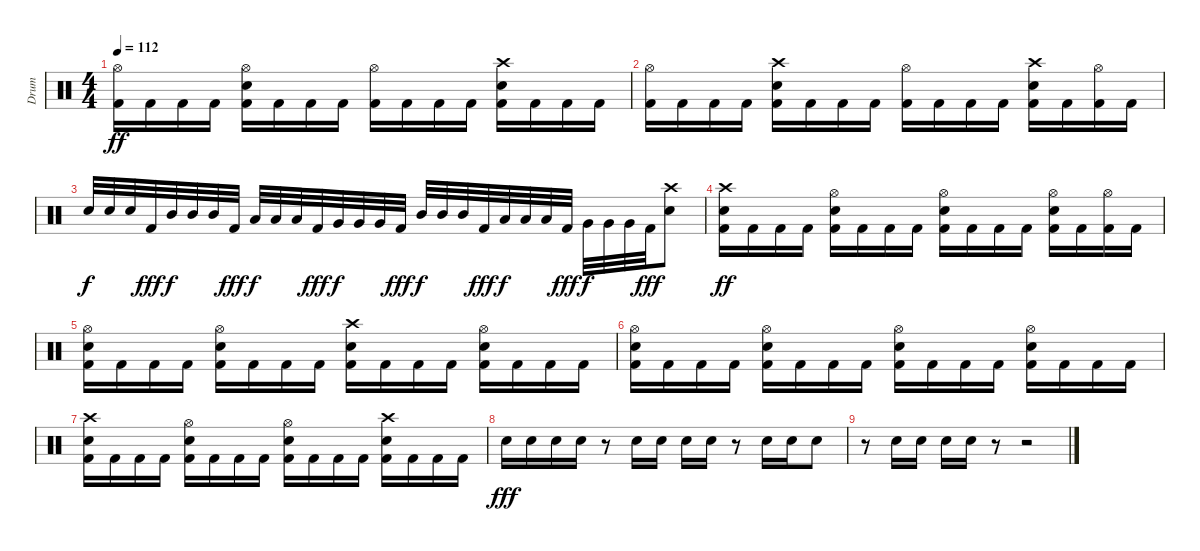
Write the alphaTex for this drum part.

\track ("Drum" "Drum") {instrument percussion}
\staff {score}
\articulation defaults
\ts (4 4)
\tempo 112
\clef neutral
\ks c
("Hi-Hat (open)" "Kick (hit) 2").16{dy ff} "Kick (hit) 2".16 "Kick (hit) 2".16 "Kick (hit) 2".16 ("Hi-Hat (open)" "Electric Snare (hit)" "Kick (hit) 2").16 "Kick (hit) 2".16 "Kick (hit) 2".16 "Kick (hit) 2".16 ("Hi-Hat (open)" "Kick (hit) 2").16 "Kick (hit) 2".16 "Kick (hit) 2".16 "Kick (hit) 2".16 ("Crash high (hit)" "Electric Snare (hit)" "Kick (hit) 2").16 "Kick (hit) 2".16 "Kick (hit) 2".16 "Kick (hit) 2".16 |
("Hi-Hat (open)" "Kick (hit) 2").16 "Kick (hit) 2".16 "Kick (hit) 2".16 "Kick (hit) 2".16 ("Crash high (hit)" "Electric Snare (hit)" "Kick (hit) 2").16 "Kick (hit) 2".16 "Kick (hit) 2".16 "Kick (hit) 2".16 ("Hi-Hat (open)" "Kick (hit) 2").16 "Kick (hit) 2".16 "Kick (hit) 2".16 "Kick (hit) 2".16 ("Crash high (hit)" "Electric Snare (hit)" "Kick (hit) 2").16 "Kick (hit) 2".16 ("Hi-Hat (open)" "Kick (hit) 2").16 "Kick (hit) 2".16 |
"Electric Snare (hit)".32{dy f} "Electric Snare (hit)".32 "Electric Snare (hit)".32 "Kick (hit) 2".32{dy fff} "Mid Tom (hit)".32{dy f} "Mid Tom (hit)".32 "Mid Tom (hit)".32 "Kick (hit) 2".32{dy fff} "Low Tom (hit)".32{dy f} "Low Tom (hit)".32 "Low Tom (hit)".32 "Kick (hit) 2".32{dy fff} "Very Low Tom (hit)".32{dy f} "Very Low Tom (hit)".32 "Very Low Tom (hit)".32 "Kick (hit) 2".32{dy fff} "Mid Tom (hit)".32{dy f} "Mid Tom (hit)".32 "Mid Tom (hit)".32 "Kick (hit) 2".32{dy fff} "Low Tom (hit)".32{dy f} "Low Tom (hit)".32 "Low Tom (hit)".32 "Kick (hit) 2".32{dy fff} "Very Low Tom (hit)".32{dy f} "Very Low Tom (hit)".32 "Very Low Tom (hit)".32 "Kick (hit) 2".32{dy fff} ("Crash high (hit)" "Electric Snare (hit)").8 |
("Crash high (hit)" "Electric Snare (hit)" "Kick (hit) 2").16{dy ff} "Kick (hit) 2".16 "Kick (hit) 2".16 "Kick (hit) 2".16 ("Hi-Hat (open)" "Electric Snare (hit)" "Kick (hit) 2").16 "Kick (hit) 2".16 "Kick (hit) 2".16 "Kick (hit) 2".16 ("Hi-Hat (open)" "Electric Snare (hit)" "Kick (hit) 2").16 "Kick (hit) 2".16 "Kick (hit) 2".16 "Kick (hit) 2".16 ("Hi-Hat (open)" "Electric Snare (hit)" "Kick (hit) 2").16 "Kick (hit) 2".16 ("Hi-Hat (open)" "Kick (hit) 2").16 "Kick (hit) 2".16 |
("Hi-Hat (open)" "Electric Snare (hit)" "Kick (hit) 2").16 "Kick (hit) 2".16 "Kick (hit) 2".16 "Kick (hit) 2".16 ("Hi-Hat (open)" "Electric Snare (hit)" "Kick (hit) 2").16 "Kick (hit) 2".16 "Kick (hit) 2".16 "Kick (hit) 2".16 ("Crash high (hit)" "Electric Snare (hit)" "Kick (hit) 2").16 "Kick (hit) 2".16 "Kick (hit) 2".16 "Kick (hit) 2".16 ("Hi-Hat (open)" "Electric Snare (hit)" "Kick (hit) 2").16 "Kick (hit) 2".16 "Kick (hit) 2".16 "Kick (hit) 2".16 |
("Hi-Hat (open)" "Electric Snare (hit)" "Kick (hit) 2").16 "Kick (hit) 2".16 "Kick (hit) 2".16 "Kick (hit) 2".16 ("Hi-Hat (open)" "Electric Snare (hit)" "Kick (hit) 2").16 "Kick (hit) 2".16 "Kick (hit) 2".16 "Kick (hit) 2".16 ("Hi-Hat (open)" "Electric Snare (hit)" "Kick (hit) 2").16 "Kick (hit) 2".16 "Kick (hit) 2".16 "Kick (hit) 2".16 ("Hi-Hat (open)" "Electric Snare (hit)" "Kick (hit) 2").16 "Kick (hit) 2".16 "Kick (hit) 2".16 "Kick (hit) 2".16 |
("Crash high (hit)" "Electric Snare (hit)" "Kick (hit) 2").16 "Kick (hit) 2".16 "Kick (hit) 2".16 "Kick (hit) 2".16 ("Hi-Hat (open)" "Electric Snare (hit)" "Kick (hit) 2").16 "Kick (hit) 2".16 "Kick (hit) 2".16 "Kick (hit) 2".16 ("Hi-Hat (open)" "Electric Snare (hit)" "Kick (hit) 2").16 "Kick (hit) 2".16 "Kick (hit) 2".16 "Kick (hit) 2".16 ("Crash high (hit)" "Electric Snare (hit)" "Kick (hit) 2").16 "Kick (hit) 2".16 "Kick (hit) 2".16 "Kick (hit) 2".16 |
"Electric Snare (hit)".16{dy fff} "Electric Snare (hit)".16 "Electric Snare (hit)".16 "Electric Snare (hit)".16 r.8 "Electric Snare (hit)".16 "Electric Snare (hit)".16 "Electric Snare (hit)".16 "Electric Snare (hit)".16 r.8 "Electric Snare (hit)".16 "Electric Snare (hit)".16 "Electric Snare (hit)".8 |
r.8 "Electric Snare (hit)".16 "Electric Snare (hit)".16 "Electric Snare (hit)".16 "Electric Snare (hit)".16 r.8 r.2
